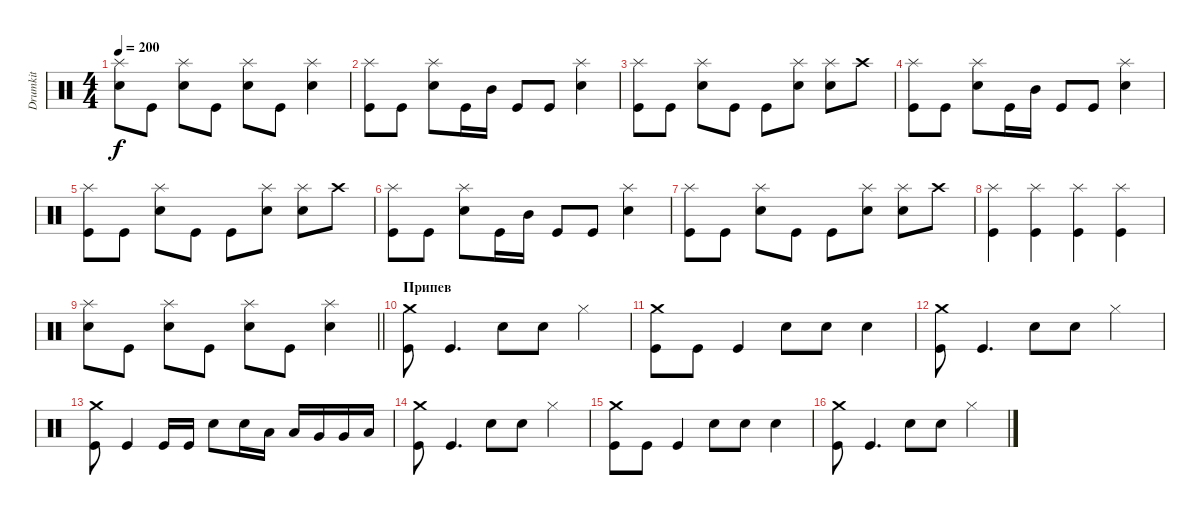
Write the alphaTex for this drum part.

\track ("Drumkit" "Drumkit") {instrument percussion}
\staff {score}
\articulation defaults
\ts (4 4)
\tempo 200
\clef neutral
\ks c
("Snare (hit) 2" "Splash (hit)").8{dy f} "Kick (hit)".8 ("Snare (hit) 2" "Splash (hit)").8 "Kick (hit)".8 ("Snare (hit) 2" "Splash (hit)").8 "Kick (hit)".8 ("Snare (hit) 2" "Splash (hit)").4 |
("Kick (hit)" "Splash (hit)").8 "Kick (hit)".8 ("Snare (hit) 2" "Splash (hit)").8 "Kick (hit)".16 "Mid Tom (hit)".16 "Kick (hit)".8 "Kick (hit)".8 ("Snare (hit) 2" "Splash (hit)").4 |
("Kick (hit)" "Splash (hit)").8 "Kick (hit)".8 ("Snare (hit) 2" "Splash (hit)").8 "Kick (hit)".8 "Kick (hit)".8 ("Snare (hit) 2" "Splash (hit)").8 ("Snare (hit) 2" "Splash (hit)").8 "Crash high (hit)".8 |
("Kick (hit)" "Splash (hit)").8 "Kick (hit)".8 ("Snare (hit) 2" "Splash (hit)").8 "Kick (hit)".16 "Mid Tom (hit)".16 "Kick (hit)".8 "Kick (hit)".8 ("Snare (hit) 2" "Splash (hit)").4 |
("Kick (hit)" "Splash (hit)").8 "Kick (hit)".8 ("Snare (hit) 2" "Splash (hit)").8 "Kick (hit)".8 "Kick (hit)".8 ("Snare (hit) 2" "Splash (hit)").8 ("Snare (hit) 2" "Splash (hit)").8 "Crash high (hit)".8 |
("Kick (hit)" "Splash (hit)").8 "Kick (hit)".8 ("Snare (hit) 2" "Splash (hit)").8 "Kick (hit)".16 "Mid Tom (hit)".16 "Kick (hit)".8 "Kick (hit)".8 ("Snare (hit) 2" "Splash (hit)").4 |
("Kick (hit)" "Splash (hit)").8 "Kick (hit)".8 ("Snare (hit) 2" "Splash (hit)").8 "Kick (hit)".8 "Kick (hit)".8 ("Snare (hit) 2" "Splash (hit)").8 ("Snare (hit) 2" "Splash (hit)").8 "Crash high (hit)".8 |
("Kick (hit)" "Splash (hit)").4 ("Kick (hit)" "Splash (hit)").4 ("Kick (hit)" "Splash (hit)").4 ("Kick (hit)" "Splash (hit)").4 |
\barLineRight lightlight
("Snare (hit) 2" "Splash (hit)").8 "Kick (hit)".8 ("Snare (hit) 2" "Splash (hit)").8 "Kick (hit)".8 ("Snare (hit) 2" "Splash (hit)").8 "Kick (hit)".8 ("Snare (hit) 2" "Splash (hit)").4 |
\section ("" "Припев")
("Kick (hit)" "Crash medium (hit)").8 "Kick (hit)".4{d} "Snare (hit) 2".8 "Snare (hit) 2".8 "Hi-Hat (closed)".4 |
("Kick (hit)" "Crash medium (hit)").8 "Kick (hit)".8 "Kick (hit)".4 "Snare (hit) 2".8 "Snare (hit) 2".8 "Snare (hit) 2".4 |
("Kick (hit)" "Crash medium (hit)").8 "Kick (hit)".4{d} "Snare (hit) 2".8 "Snare (hit) 2".8 "Hi-Hat (closed)".4 |
("Kick (hit)" "Crash medium (hit)").8 "Kick (hit)".4 "Kick (hit)".16 "Kick (hit)".16 "Snare (hit) 2".8 "Snare (hit) 2".16 "Low Tom (hit)".16 "Low Tom (hit)".16 "Very Low Tom (hit)".16 "Very Low Tom (hit)".16 "Low Floor Tom (hit)".16 |
("Kick (hit)" "Crash medium (hit)").8 "Kick (hit)".4{d} "Snare (hit) 2".8 "Snare (hit) 2".8 "Hi-Hat (closed)".4 |
("Kick (hit)" "Crash medium (hit)").8 "Kick (hit)".8 "Kick (hit)".4 "Snare (hit) 2".8 "Snare (hit) 2".8 "Snare (hit) 2".4 |
("Kick (hit)" "Crash medium (hit)").8 "Kick (hit)".4{d} "Snare (hit) 2".8 "Snare (hit) 2".8 "Hi-Hat (closed)".4
